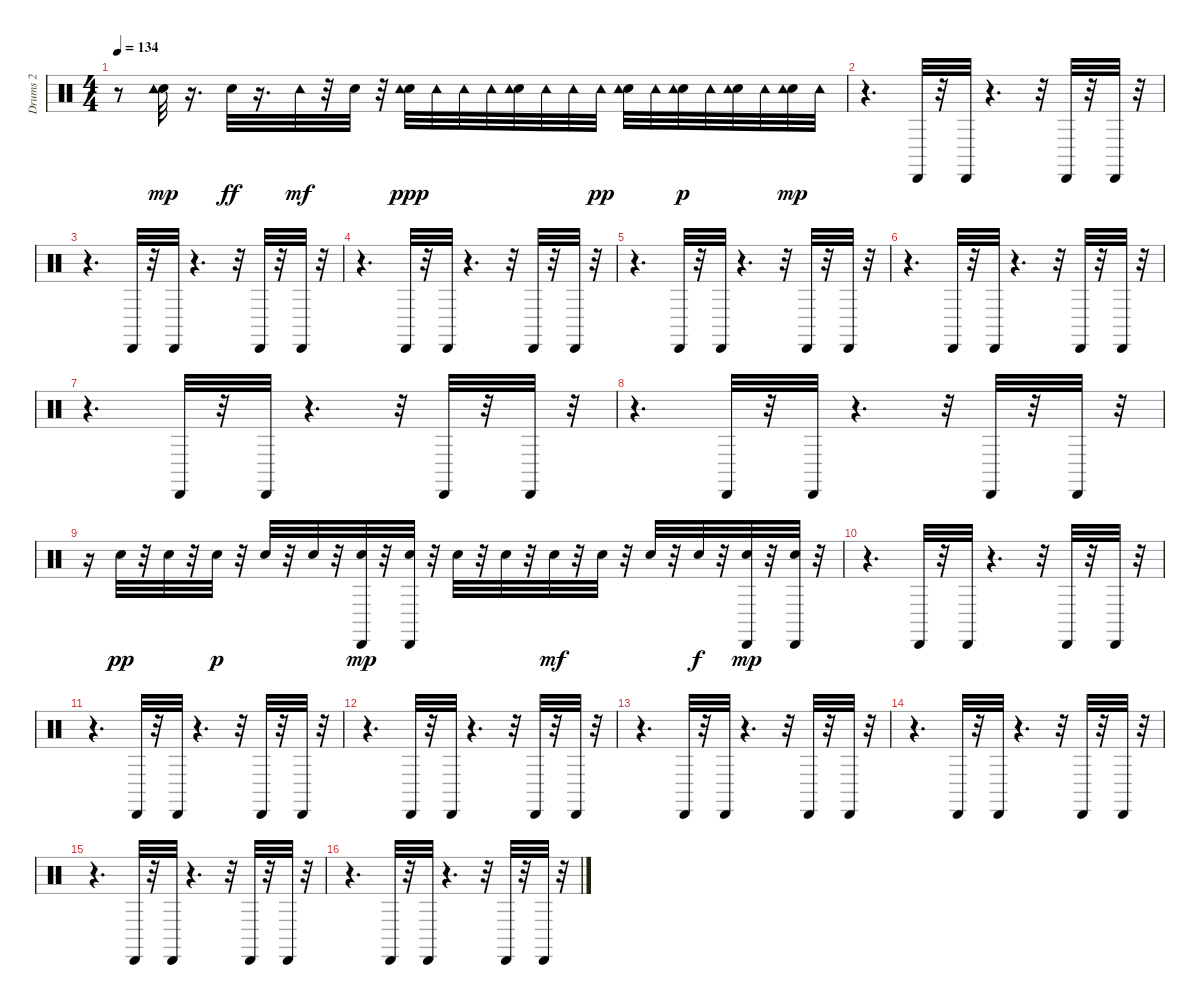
\track ("Drums 2" "Drums 2") {instrument percussion}
\staff {score}
\articulation defaults
\ts (4 4)
\tempo 134
\clef neutral
\ks c
r.8{dy mp} ("Snare (hit) 2" "Tambourine (hit)").32 r.16{d} "Snare (hit) 2".32{dy ff} r.16{d} "Tambourine (hit)".32{dy mf} r.32 "Snare (hit) 2".32 r.32 ("Snare (hit) 2" "Tambourine (hit)").32{dy ppp} "Tambourine (hit)".32 "Tambourine (hit)".32 "Tambourine (hit)".32 ("Snare (hit) 2" "Tambourine (hit)").32 "Tambourine (hit)".32 "Tambourine (hit)".32 "Tambourine (hit)".32{dy pp} ("Snare (hit) 2" "Tambourine (hit)").32 "Tambourine (hit)".32 ("Snare (hit) 2" "Tambourine (hit)").32{dy p} "Tambourine (hit)".32 ("Snare (hit) 2" "Tambourine (hit)").32 "Tambourine (hit)".32 ("Snare (hit) 2" "Tambourine (hit)").32{dy mp} "Tambourine (hit)".32 |
r.4{d} "Cabasa (hit)".32 r.32 "Cabasa (hit)".32 r.4{d} r.32 "Cabasa (hit)".32 r.32 "Cabasa (hit)".32 r.32 |
r.4{d} "Cabasa (hit)".32 r.32 "Cabasa (hit)".32 r.4{d} r.32 "Cabasa (hit)".32 r.32 "Cabasa (hit)".32 r.32 |
r.4{d} "Cabasa (hit)".32 r.32 "Cabasa (hit)".32 r.4{d} r.32 "Cabasa (hit)".32 r.32 "Cabasa (hit)".32 r.32 |
r.4{d} "Cabasa (hit)".32 r.32 "Cabasa (hit)".32 r.4{d} r.32 "Cabasa (hit)".32 r.32 "Cabasa (hit)".32 r.32 |
r.4{d} "Cabasa (hit)".32 r.32 "Cabasa (hit)".32 r.4{d} r.32 "Cabasa (hit)".32 r.32 "Cabasa (hit)".32 r.32 |
r.4{d} "Cabasa (hit)".32 r.32 "Cabasa (hit)".32 r.4{d} r.32 "Cabasa (hit)".32 r.32 "Cabasa (hit)".32 r.32 |
r.4{d} "Cabasa (hit)".32 r.32 "Cabasa (hit)".32 r.4{d} r.32 "Cabasa (hit)".32 r.32 "Cabasa (hit)".32 r.32 |
r.16 "Snare (hit) 2".32{dy pp} r.32 "Snare (hit) 2".32 r.32 "Snare (hit) 2".32{dy p} r.32 "Snare (hit) 2".32 r.32 "Snare (hit) 2".32 r.32 ("Snare (hit) 2" "Cabasa (hit)").32{dy mp} r.32 ("Snare (hit) 2" "Cabasa (hit)").32 r.32 "Snare (hit) 2".32 r.32 "Snare (hit) 2".32 r.32 "Snare (hit) 2".32{dy mf} r.32 "Snare (hit) 2".32 r.32 "Snare (hit) 2".32 r.32 "Snare (hit) 2".32{dy f} r.32 ("Snare (hit) 2" "Cabasa (hit)").32{dy mp} r.32 ("Snare (hit) 2" "Cabasa (hit)").32 r.32 |
r.4{d} "Cabasa (hit)".32 r.32 "Cabasa (hit)".32 r.4{d} r.32 "Cabasa (hit)".32 r.32 "Cabasa (hit)".32 r.32 |
r.4{d} "Cabasa (hit)".32 r.32 "Cabasa (hit)".32 r.4{d} r.32 "Cabasa (hit)".32 r.32 "Cabasa (hit)".32 r.32 |
r.4{d} "Cabasa (hit)".32 r.32 "Cabasa (hit)".32 r.4{d} r.32 "Cabasa (hit)".32 r.32 "Cabasa (hit)".32 r.32 |
r.4{d} "Cabasa (hit)".32 r.32 "Cabasa (hit)".32 r.4{d} r.32 "Cabasa (hit)".32 r.32 "Cabasa (hit)".32 r.32 |
r.4{d} "Cabasa (hit)".32 r.32 "Cabasa (hit)".32 r.4{d} r.32 "Cabasa (hit)".32 r.32 "Cabasa (hit)".32 r.32 |
r.4{d} "Cabasa (hit)".32 r.32 "Cabasa (hit)".32 r.4{d} r.32 "Cabasa (hit)".32 r.32 "Cabasa (hit)".32 r.32 |
r.4{d} "Cabasa (hit)".32 r.32 "Cabasa (hit)".32 r.4{d} r.32 "Cabasa (hit)".32 r.32 "Cabasa (hit)".32 r.32
